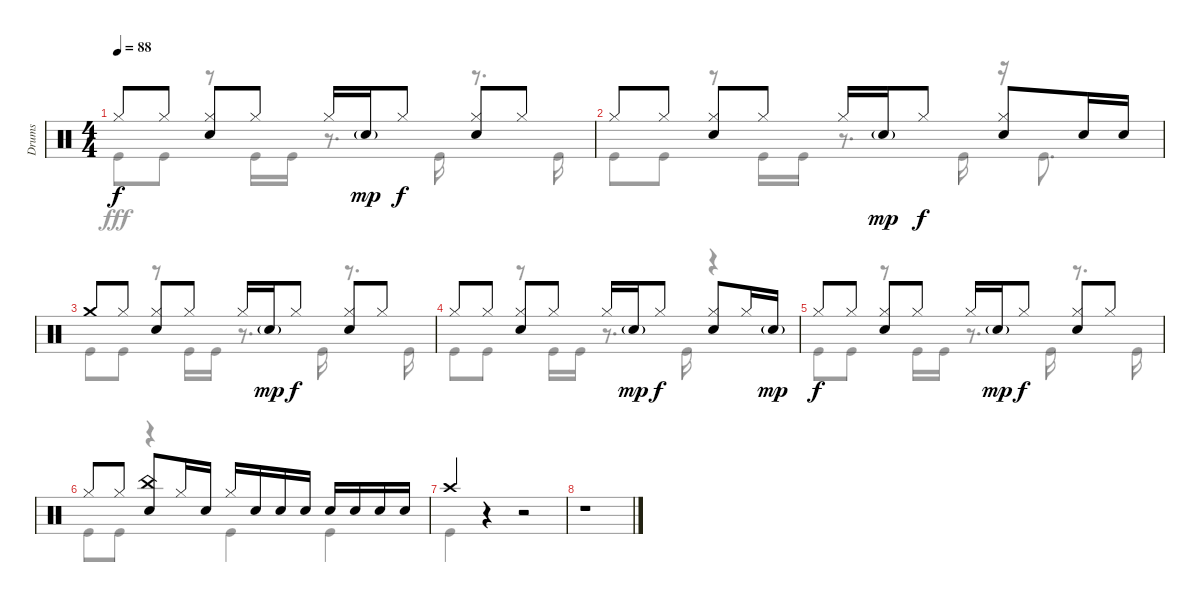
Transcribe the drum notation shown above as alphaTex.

\track ("Drums" "Drums") {instrument percussion}
\staff {score}
\articulation defaults
\voice
\ts (4 4)
\tempo 88
\clef neutral
\ks c "Hi-Hat (closed)".8{dy f} "Hi-Hat (closed)".8
("Hi-Hat (closed)" "Snare (hit) 2").8 "Hi-Hat (closed)".8 "Hi-Hat (closed)".16 "Snare (hit) 2"{g}.16{dy mp} "Hi-Hat (closed)".8{dy f} ("Hi-Hat (closed)" "Snare (hit) 2").8 "Hi-Hat (closed)".8 |
"Hi-Hat (closed)".8 "Hi-Hat (closed)".8 ("Hi-Hat (closed)" "Snare (hit) 2").8 "Hi-Hat (closed)".8 "Hi-Hat (closed)".16 "Snare (hit) 2"{g}.16{dy mp} "Hi-Hat (closed)".8{dy f} ("Hi-Hat (closed)" "Snare (hit) 2").8 "Snare (hit) 2".16 "Snare (hit) 2".16 |
"Crash medium (hit)".8 "Hi-Hat (closed)".8 ("Hi-Hat (closed)" "Snare (hit) 2").8 "Hi-Hat (closed)".8 "Hi-Hat (closed)".16 "Snare (hit) 2"{g}.16{dy mp} "Hi-Hat (closed)".8{dy f} ("Hi-Hat (closed)" "Snare (hit) 2").8 "Hi-Hat (closed)".8 |
"Hi-Hat (closed)".8 "Hi-Hat (closed)".8 ("Hi-Hat (closed)" "Snare (hit) 2").8 "Hi-Hat (closed)".8 "Hi-Hat (closed)".16 "Snare (hit) 2"{g}.16{dy mp} "Hi-Hat (closed)".8{dy f} ("Hi-Hat (closed)" "Snare (hit) 2").8 "Hi-Hat (closed)".16 "Snare (hit) 2"{g}.16{dy mp} |
"Hi-Hat (closed)".8{dy f} "Hi-Hat (closed)".8 ("Hi-Hat (closed)" "Snare (hit) 2").8 "Hi-Hat (closed)".8 "Hi-Hat (closed)".16 "Snare (hit) 2"{g}.16{dy mp} "Hi-Hat (closed)".8{dy f} ("Hi-Hat (closed)" "Snare (hit) 2").8 "Hi-Hat (closed)".8 |
"Hi-Hat (closed)".8 "Hi-Hat (closed)".8 ("China (hit)" "Snare (hit) 2").8 "Hi-Hat (closed)".16 "Snare (hit) 2".16 "Hi-Hat (closed)".16 "Snare (hit) 2".16 "Snare (hit) 2".16 "Snare (hit) 2".16 "Snare (hit) 2".16 "Snare (hit) 2".16 "Snare (hit) 2".16 "Snare (hit) 2".16 |
"Crash high (hit)".4 r.4 r.2 |
r.1
\voice
\clef neutral
\ottava regular
\simile none
\ks c "Kick (hit)".8{dy fff} "Kick (hit)".8
r.8 "Kick (hit)".16 "Kick (hit)".16 r.8{d} "Kick (hit)".16 r.8{d} "Kick (hit)".16 |
"Kick (hit)".8 "Kick (hit)".8 r.8 "Kick (hit)".16 "Kick (hit)".16 r.8{d} "Kick (hit)".16 r.16 "Kick (hit)".8{d} |
"Kick (hit)".8 "Kick (hit)".8 r.8 "Kick (hit)".16 "Kick (hit)".16 r.8{d} "Kick (hit)".16 r.8{d} "Kick (hit)".16 |
"Kick (hit)".8 "Kick (hit)".8 r.8 "Kick (hit)".16 "Kick (hit)".16 r.8{d} "Kick (hit)".16 r.4 |
"Kick (hit)".8 "Kick (hit)".8 r.8 "Kick (hit)".16 "Kick (hit)".16 r.8{d} "Kick (hit)".16 r.8{d} "Kick (hit)".16 |
"Kick (hit)".8 "Kick (hit)".8 r.4 "Kick (hit)".4 "Kick (hit)".4 |
"Kick (hit)".4 r.4 r.2 |
r.1
